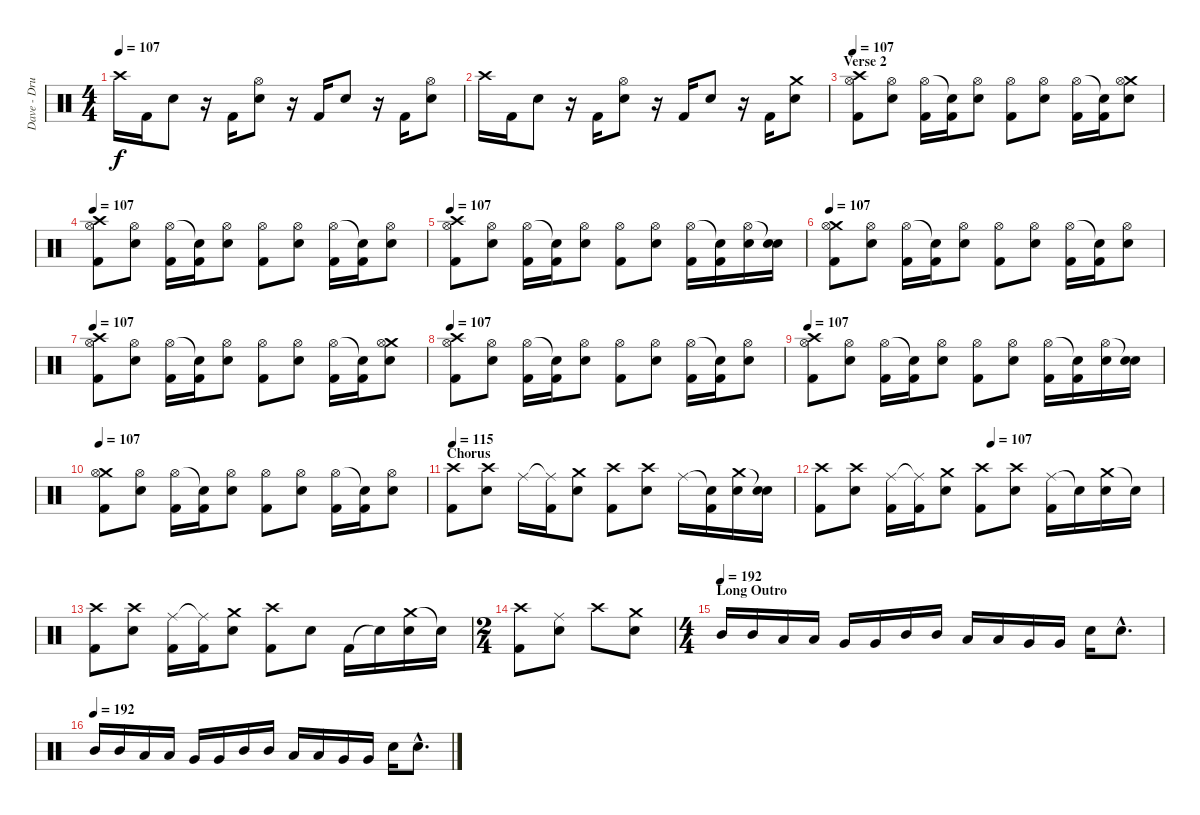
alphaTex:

\track ("Dave - Drums" "Dave - Dru") {instrument percussion}
\staff {score}
\articulation defaults
\ts (4 4)
\tempo 107
\clef neutral
\ks c "Crash high (hit)".16{dy f} "Kick (hit) 2".16 "Electric Snare (hit)".8
r.16 "Kick (hit) 2".16 ("Hi-Hat (open)" "Electric Snare (hit)").8 r.16 "Kick (hit) 2".16 "Electric Snare (hit)".8 r.16 "Kick (hit) 2".16 ("Hi-Hat (open)" "Electric Snare (hit)").8 |
"Crash high (hit)".16 "Kick (hit) 2".16 "Electric Snare (hit)".8 r.16 "Kick (hit) 2".16 ("Hi-Hat (open)" "Electric Snare (hit)").8 r.16 "Kick (hit) 2".16 "Electric Snare (hit)".8 r.16 "Kick (hit) 2".16 ("Crash medium (hit)" "Electric Snare (hit)").8 |
\section ("" "Verse 2")
\tempo 107
("Crash high (hit)" "Hi-Hat (open)" "Kick (hit) 2").8 ("Hi-Hat (open)" "Electric Snare (hit)").8 ("Hi-Hat (open)" "Kick (hit) 2").16 ("Snare (hit)"{t} "Kick (hit) 2").16 ("Hi-Hat (open)" "Electric Snare (hit)").8 ("Hi-Hat (open)" "Kick (hit) 2").8 ("Hi-Hat (open)" "Electric Snare (hit)").8 ("Hi-Hat (open)" "Kick (hit) 2").16 ("Snare (hit)"{t} "Kick (hit) 2").16 ("Crash medium (hit)" "Hi-Hat (open)" "Electric Snare (hit)").8 |
\tempo 107
("Crash high (hit)" "Hi-Hat (open)" "Kick (hit) 2").8 ("Hi-Hat (open)" "Electric Snare (hit)").8 ("Hi-Hat (open)" "Kick (hit) 2").16 ("Snare (hit)"{t} "Kick (hit) 2").16 ("Hi-Hat (open)" "Electric Snare (hit)").8 ("Hi-Hat (open)" "Kick (hit) 2").8 ("Hi-Hat (open)" "Electric Snare (hit)").8 ("Hi-Hat (open)" "Kick (hit) 2").16 ("Snare (hit)"{t} "Kick (hit) 2").16 ("Hi-Hat (open)" "Electric Snare (hit)").8 |
\tempo 107
("Crash high (hit)" "Hi-Hat (open)" "Kick (hit) 2").8 ("Hi-Hat (open)" "Electric Snare (hit)").8 ("Hi-Hat (open)" "Kick (hit) 2").16 ("Snare (hit)"{t} "Kick (hit) 2").16 ("Hi-Hat (open)" "Electric Snare (hit)").8 ("Hi-Hat (open)" "Kick (hit) 2").8 ("Hi-Hat (open)" "Electric Snare (hit)").8 ("Hi-Hat (open)" "Kick (hit) 2").16 ("Snare (hit)"{t} "Kick (hit) 2").16 ("Hi-Hat (open)" "Electric Snare (hit)").16 ("Snare (hit)"{t} "Electric Snare (hit)").16 |
\tempo 107
("Crash medium (hit)" "Hi-Hat (open)" "Kick (hit) 2").8 ("Hi-Hat (open)" "Electric Snare (hit)").8 ("Hi-Hat (open)" "Kick (hit) 2").16 ("Snare (hit)"{t} "Kick (hit) 2").16 ("Hi-Hat (open)" "Electric Snare (hit)").8 ("Hi-Hat (open)" "Kick (hit) 2").8 ("Hi-Hat (open)" "Electric Snare (hit)").8 ("Hi-Hat (open)" "Kick (hit) 2").16 ("Snare (hit)"{t} "Kick (hit) 2").16 ("Hi-Hat (open)" "Electric Snare (hit)").8 |
\tempo 107
("Crash high (hit)" "Hi-Hat (open)" "Kick (hit) 2").8 ("Hi-Hat (open)" "Electric Snare (hit)").8 ("Hi-Hat (open)" "Kick (hit) 2").16 ("Snare (hit)"{t} "Kick (hit) 2").16 ("Hi-Hat (open)" "Electric Snare (hit)").8 ("Hi-Hat (open)" "Kick (hit) 2").8 ("Hi-Hat (open)" "Electric Snare (hit)").8 ("Hi-Hat (open)" "Kick (hit) 2").16 ("Snare (hit)"{t} "Kick (hit) 2").16 ("Crash medium (hit)" "Hi-Hat (open)" "Electric Snare (hit)").8 |
\tempo 107
("Crash high (hit)" "Hi-Hat (open)" "Kick (hit) 2").8 ("Hi-Hat (open)" "Electric Snare (hit)").8 ("Hi-Hat (open)" "Kick (hit) 2").16 ("Snare (hit)"{t} "Kick (hit) 2").16 ("Hi-Hat (open)" "Electric Snare (hit)").8 ("Hi-Hat (open)" "Kick (hit) 2").8 ("Hi-Hat (open)" "Electric Snare (hit)").8 ("Hi-Hat (open)" "Kick (hit) 2").16 ("Snare (hit)"{t} "Kick (hit) 2").16 ("Hi-Hat (open)" "Electric Snare (hit)").8 |
\tempo 107
("Crash high (hit)" "Hi-Hat (open)" "Kick (hit) 2").8 ("Hi-Hat (open)" "Electric Snare (hit)").8 ("Hi-Hat (open)" "Kick (hit) 2").16 ("Snare (hit)"{t} "Kick (hit) 2").16 ("Hi-Hat (open)" "Electric Snare (hit)").8 ("Hi-Hat (open)" "Kick (hit) 2").8 ("Hi-Hat (open)" "Electric Snare (hit)").8 ("Hi-Hat (open)" "Kick (hit) 2").16 ("Snare (hit)"{t} "Kick (hit) 2").16 ("Hi-Hat (open)" "Electric Snare (hit)").16 ("Snare (hit)"{t} "Electric Snare (hit)").16 |
\tempo 107
("Crash medium (hit)" "Hi-Hat (open)" "Kick (hit) 2").8 ("Hi-Hat (open)" "Electric Snare (hit)").8 ("Hi-Hat (open)" "Kick (hit) 2").16 ("Snare (hit)"{t} "Kick (hit) 2").16 ("Hi-Hat (open)" "Electric Snare (hit)").8 ("Hi-Hat (open)" "Kick (hit) 2").8 ("Hi-Hat (open)" "Electric Snare (hit)").8 ("Hi-Hat (open)" "Kick (hit) 2").16 ("Snare (hit)"{t} "Kick (hit) 2").16 ("Hi-Hat (open)" "Electric Snare (hit)").8 |
\section ("" "Chorus ")
\tempo 95
\tempo 115
("Crash high (hit)" "Kick (hit) 2").8 ("Crash high (hit)" "Electric Snare (hit)").8 "Ride (middle)".16 ("Ride (middle)"{t} "Kick (hit) 2").16 ("Crash medium (hit)" "Electric Snare (hit)").8 ("Crash high (hit)" "Kick (hit) 2").8 ("Crash high (hit)" "Electric Snare (hit)").8 "Ride (middle)".16 ("Snare (hit)"{t} "Kick (hit) 2").16 ("Crash medium (hit)" "Electric Snare (hit)").16 ("Snare (hit)"{t} "Electric Snare (hit)").16 |
\tempo (107 0.5)
("Crash high (hit)" "Kick (hit) 2").8 ("Crash high (hit)" "Electric Snare (hit)").8 ("Ride (middle)" "Kick (hit) 2").16 ("Ride (middle)"{t} "Kick (hit) 2").16 ("Crash medium (hit)" "Electric Snare (hit)").8 ("Crash high (hit)" "Kick (hit) 2").8 ("Crash high (hit)" "Electric Snare (hit)").8 ("Ride (middle)" "Kick (hit) 2").16 "Snare (hit)"{t}.16 ("Crash medium (hit)" "Electric Snare (hit)").16 "Snare (hit)"{t}.16 |
("Crash high (hit)" "Kick (hit) 2").8 ("Crash high (hit)" "Electric Snare (hit)").8 ("Ride (middle)" "Kick (hit) 2").16 ("Ride (middle)"{t} "Kick (hit) 2").16 ("Crash medium (hit)" "Electric Snare (hit)").8 ("Crash high (hit)" "Kick (hit) 2").8 "Electric Snare (hit)".8 "Kick (hit) 2".16 "Snare (hit)"{t}.16 ("Crash medium (hit)" "Electric Snare (hit)").16 "Snare (hit)"{t}.16 |
\ts (2 4)
("Crash high (hit)" "Kick (hit) 2").8 ("Ride (middle)" "Electric Snare (hit)").8 "Crash high (hit)".8 ("Crash medium (hit)" "Electric Snare (hit)").8 |
\ts (4 4)
\section ("" "Long Outro")
\tempo (192)
"Mid Tom (hit)".16 "Mid Tom (hit)".16 "Low Tom (hit)".16 "Low Tom (hit)".16 "Very Low Tom (hit)".16 "Very Low Tom (hit)".16 "Mid Tom (hit)".16 "Mid Tom (hit)".16 "Low Tom (hit)".16 "Low Tom (hit)".16 "Very Low Tom (hit)".16 "Very Low Tom (hit)".16 "Electric Snare (hit)".16 "Electric Snare (hit)"{hac}.8{d} |
\tempo (192)
"Mid Tom (hit)".16 "Mid Tom (hit)".16 "Low Tom (hit)".16 "Low Tom (hit)".16 "Very Low Tom (hit)".16 "Very Low Tom (hit)".16 "Mid Tom (hit)".16 "Mid Tom (hit)".16 "Low Tom (hit)".16 "Low Tom (hit)".16 "Very Low Tom (hit)".16 "Very Low Tom (hit)".16 "Electric Snare (hit)".16 "Electric Snare (hit)"{hac}.8{d}
